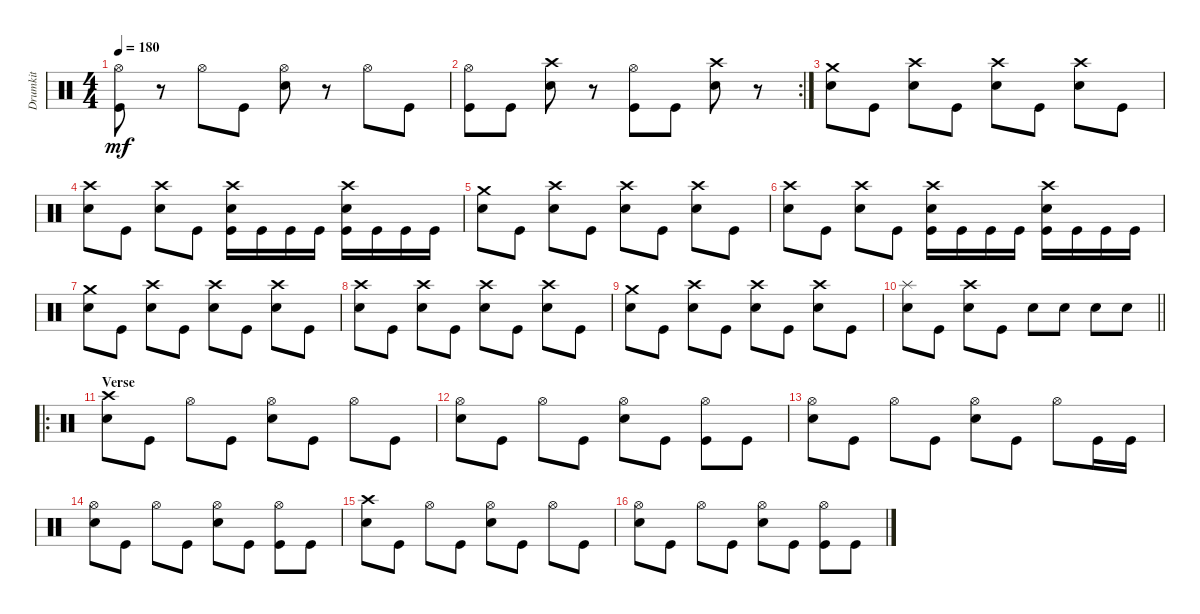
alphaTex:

\track ("Drumkit" "Drumkit") {instrument percussion}
\staff {score}
\articulation defaults
\ts (4 4)
\tempo 180
\clef neutral
\ks c
("Kick (hit)" "Hi-Hat (open)").8{dy mf} r.8 "Hi-Hat (open)".8 "Kick (hit)".8 ("Snare (hit) 2" "Hi-Hat (open)").8 r.8 "Hi-Hat (open)".8 "Kick (hit)".8 |
\rc 2
("Kick (hit)" "Hi-Hat (open)").8 "Kick (hit)".8 ("Snare (hit) 2" "Crash high (hit)").8 r.8 ("Kick (hit)" "Hi-Hat (open)").8 "Kick (hit)".8 ("Snare (hit) 2" "Crash high (hit)").8 r.8 |
("Snare (hit) 2" "Crash medium (hit)").8 "Kick (hit)".8 ("Snare (hit) 2" "Crash high (hit)").8 "Kick (hit)".8 ("Snare (hit) 2" "Crash high (hit)").8 "Kick (hit)".8 ("Snare (hit) 2" "Crash high (hit)").8 "Kick (hit)".8 |
("Snare (hit) 2" "Crash high (hit)").8 "Kick (hit)".8 ("Snare (hit) 2" "Crash high (hit)").8 "Kick (hit)".8 ("Snare (hit) 2" "Crash high (hit)" "Kick (hit)").16 "Kick (hit)".16 "Kick (hit)".16 "Kick (hit)".16 ("Snare (hit) 2" "Crash high (hit)" "Kick (hit)").16 "Kick (hit)".16 "Kick (hit)".16 "Kick (hit)".16 |
("Snare (hit) 2" "Crash medium (hit)").8 "Kick (hit)".8 ("Snare (hit) 2" "Crash high (hit)").8 "Kick (hit)".8 ("Snare (hit) 2" "Crash high (hit)").8 "Kick (hit)".8 ("Snare (hit) 2" "Crash high (hit)").8 "Kick (hit)".8 |
("Snare (hit) 2" "Crash high (hit)").8 "Kick (hit)".8 ("Snare (hit) 2" "Crash high (hit)").8 "Kick (hit)".8 ("Kick (hit)" "Snare (hit) 2" "Crash high (hit)").16 "Kick (hit)".16 "Kick (hit)".16 "Kick (hit)".16 ("Kick (hit)" "Snare (hit) 2" "Crash high (hit)").16 "Kick (hit)".16 "Kick (hit)".16 "Kick (hit)".16 |
("Snare (hit) 2" "Crash medium (hit)").8 "Kick (hit)".8 ("Snare (hit) 2" "Crash high (hit)").8 "Kick (hit)".8 ("Snare (hit) 2" "Crash high (hit)").8 "Kick (hit)".8 ("Snare (hit) 2" "Crash high (hit)").8 "Kick (hit)".8 |
("Snare (hit) 2" "Crash high (hit)").8 "Kick (hit)".8 ("Snare (hit) 2" "Crash high (hit)").8 "Kick (hit)".8 ("Snare (hit) 2" "Crash high (hit)").8 "Kick (hit)".8 ("Snare (hit) 2" "Crash high (hit)").8 "Kick (hit)".8 |
("Snare (hit) 2" "Crash medium (hit)").8 "Kick (hit)".8 ("Snare (hit) 2" "Crash high (hit)").8 "Kick (hit)".8 ("Snare (hit) 2" "Crash high (hit)").8 "Kick (hit)".8 ("Snare (hit) 2" "Crash high (hit)").8 "Kick (hit)".8 |
\barLineRight lightlight
("Snare (hit) 2" "Splash (hit)").8 "Kick (hit)".8 ("Snare (hit) 2" "Crash high (hit)").8 "Kick (hit)".8 "Snare (hit) 2".8 "Snare (hit) 2".8 "Snare (hit) 2".8 "Snare (hit) 2".8 |
\ro
\section ("" "Verse")
("Snare (hit) 2" "Crash high (hit)").8 "Kick (hit)".8 "Hi-Hat (open)".8 "Kick (hit)".8 ("Snare (hit) 2" "Hi-Hat (open)").8 "Kick (hit)".8 "Hi-Hat (open)".8 "Kick (hit)".8 |
("Snare (hit) 2" "Hi-Hat (open)").8 "Kick (hit)".8 "Hi-Hat (open)".8 "Kick (hit)".8 ("Snare (hit) 2" "Hi-Hat (open)").8 "Kick (hit)".8 ("Hi-Hat (open)" "Kick (hit)").8 "Kick (hit)".8 |
("Snare (hit) 2" "Hi-Hat (open)").8 "Kick (hit)".8 "Hi-Hat (open)".8 "Kick (hit)".8 ("Snare (hit) 2" "Hi-Hat (open)").8 "Kick (hit)".8 "Hi-Hat (open)".8 "Kick (hit)".16 "Kick (hit)".16 |
("Snare (hit) 2" "Hi-Hat (open)").8 "Kick (hit)".8 "Hi-Hat (open)".8 "Kick (hit)".8 ("Snare (hit) 2" "Hi-Hat (open)").8 "Kick (hit)".8 ("Hi-Hat (open)" "Kick (hit)").8 "Kick (hit)".8 |
("Snare (hit) 2" "Crash high (hit)").8 "Kick (hit)".8 "Hi-Hat (open)".8 "Kick (hit)".8 ("Snare (hit) 2" "Hi-Hat (open)").8 "Kick (hit)".8 "Hi-Hat (open)".8 "Kick (hit)".8 |
("Snare (hit) 2" "Hi-Hat (open)").8 "Kick (hit)".8 "Hi-Hat (open)".8 "Kick (hit)".8 ("Snare (hit) 2" "Hi-Hat (open)").8 "Kick (hit)".8 ("Hi-Hat (open)" "Kick (hit)").8 "Kick (hit)".8
